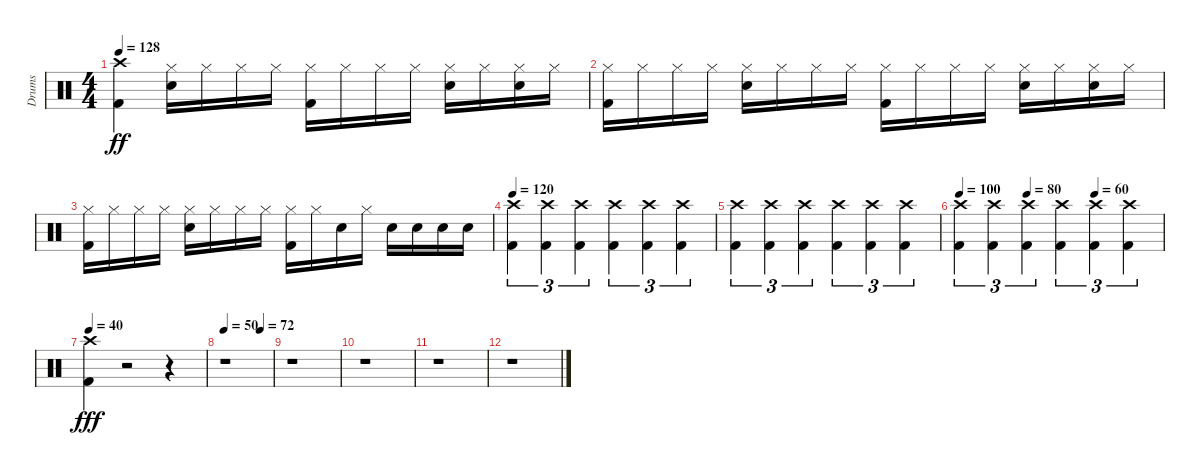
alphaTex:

\track ("Drums" "Drums") {instrument percussion}
\staff {score}
\articulation defaults
\ts (4 4)
\tempo 128
\clef neutral
\ks c
("Crash high (hit)" "Kick (hit) 2").4{dy ff} ("Snare (hit) 2" "Hi-Hat (closed)").16 "Hi-Hat (closed)".16 "Hi-Hat (closed)".16 "Hi-Hat (closed)".16 ("Kick (hit) 2" "Hi-Hat (closed)").16 "Hi-Hat (closed)".16 "Hi-Hat (closed)".16 "Hi-Hat (closed)".16 ("Snare (hit) 2" "Hi-Hat (closed)").16 "Hi-Hat (closed)".16 ("Snare (hit) 2" "Hi-Hat (closed)").16 "Hi-Hat (closed)".16 |
("Hi-Hat (closed)" "Kick (hit) 2").16 "Hi-Hat (closed)".16 "Hi-Hat (closed)".16 "Hi-Hat (closed)".16 ("Hi-Hat (closed)" "Snare (hit) 2").16 "Hi-Hat (closed)".16 "Hi-Hat (closed)".16 "Hi-Hat (closed)".16 ("Hi-Hat (closed)" "Kick (hit) 2").16 "Hi-Hat (closed)".16 "Hi-Hat (closed)".16 "Hi-Hat (closed)".16 ("Hi-Hat (closed)" "Snare (hit) 2").16 "Hi-Hat (closed)".16 ("Hi-Hat (closed)" "Snare (hit) 2").16 "Hi-Hat (closed)".16 |
("Hi-Hat (closed)" "Kick (hit) 2").16 "Hi-Hat (closed)".16 "Hi-Hat (closed)".16 "Hi-Hat (closed)".16 ("Hi-Hat (closed)" "Snare (hit) 2").16 "Hi-Hat (closed)".16 "Hi-Hat (closed)".16 "Hi-Hat (closed)".16 ("Hi-Hat (closed)" "Kick (hit) 2").16 "Hi-Hat (closed)".16 "Snare (hit) 2".16 "Hi-Hat (closed)".16 "Snare (hit) 2".16 "Snare (hit) 2".16 "Snare (hit) 2".16 "Snare (hit) 2".16 |
\tempo 120
("Kick (hit) 2" "Crash high (hit)").4{tu (3 2)} ("Kick (hit) 2" "Crash high (hit)").4{tu (3 2)} ("Kick (hit) 2" "Crash high (hit)").4{tu (3 2)} ("Kick (hit) 2" "Crash high (hit)").4{tu (3 2)} ("Kick (hit) 2" "Crash high (hit)").4{tu (3 2)} ("Kick (hit) 2" "Crash high (hit)").4{tu (3 2)} |
("Kick (hit) 2" "Crash high (hit)").4{tu (3 2)} ("Kick (hit) 2" "Crash high (hit)").4{tu (3 2)} ("Kick (hit) 2" "Crash high (hit)").4{tu (3 2)} ("Kick (hit) 2" "Crash high (hit)").4{tu (3 2)} ("Kick (hit) 2" "Crash high (hit)").4{tu (3 2)} ("Kick (hit) 2" "Crash high (hit)").4{tu (3 2)} |
\tempo 100
\tempo (80 0.3333333333333333)
\tempo (60 0.6666666666666666)
("Kick (hit) 2" "Crash high (hit)").4{tu (3 2)} ("Kick (hit) 2" "Crash high (hit)").4{tu (3 2)} ("Kick (hit) 2" "Crash high (hit)").4{tu (3 2)} ("Kick (hit) 2" "Crash high (hit)").4{tu (3 2)} ("Kick (hit) 2" "Crash high (hit)").4{tu (3 2)} ("Kick (hit) 2" "Crash high (hit)").4{tu (3 2)} |
\tempo 40
("Crash high (hit)" "Kick (hit) 2").4{dy fff} r.2 r.4 |
\tempo 50
\tempo (72 0.75)
r.1 |
r.1 |
r.1 |
r.1 |
r.1
